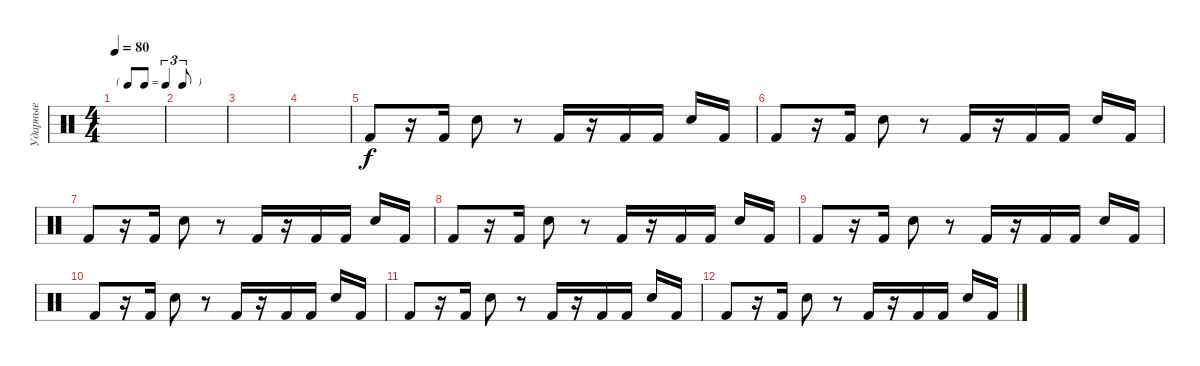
\track ("Ударные" "Ударные") {instrument percussion}
\staff {score}
\articulation defaults
\ts (4 4)
\tf triplet8th
\tempo 80
\clef neutral
\ks c
|
|
|
|
"Kick (hit) 2".8 r.16 "Kick (hit) 2".16 "Snare (hit) 2".8 r.8 "Kick (hit) 2".16 r.16 "Kick (hit) 2".16 "Kick (hit) 2".16 "Snare (hit) 2".16 "Kick (hit) 2".16 |
"Kick (hit) 2".8 r.16 "Kick (hit) 2".16 "Snare (hit) 2".8 r.8 "Kick (hit) 2".16 r.16 "Kick (hit) 2".16 "Kick (hit) 2".16 "Snare (hit) 2".16 "Kick (hit) 2".16 |
"Kick (hit) 2".8 r.16 "Kick (hit) 2".16 "Snare (hit) 2".8 r.8 "Kick (hit) 2".16 r.16 "Kick (hit) 2".16 "Kick (hit) 2".16 "Snare (hit) 2".16 "Kick (hit) 2".16 |
"Kick (hit) 2".8 r.16 "Kick (hit) 2".16 "Snare (hit) 2".8 r.8 "Kick (hit) 2".16 r.16 "Kick (hit) 2".16 "Kick (hit) 2".16 "Snare (hit) 2".16 "Kick (hit) 2".16 |
"Kick (hit) 2".8 r.16 "Kick (hit) 2".16 "Snare (hit) 2".8 r.8 "Kick (hit) 2".16 r.16 "Kick (hit) 2".16 "Kick (hit) 2".16 "Snare (hit) 2".16 "Kick (hit) 2".16 |
"Kick (hit) 2".8 r.16 "Kick (hit) 2".16 "Snare (hit) 2".8 r.8 "Kick (hit) 2".16 r.16 "Kick (hit) 2".16 "Kick (hit) 2".16 "Snare (hit) 2".16 "Kick (hit) 2".16 |
"Kick (hit) 2".8 r.16 "Kick (hit) 2".16 "Snare (hit) 2".8 r.8 "Kick (hit) 2".16 r.16 "Kick (hit) 2".16 "Kick (hit) 2".16 "Snare (hit) 2".16 "Kick (hit) 2".16 |
"Kick (hit) 2".8 r.16 "Kick (hit) 2".16 "Snare (hit) 2".8 r.8 "Kick (hit) 2".16 r.16 "Kick (hit) 2".16 "Kick (hit) 2".16 "Snare (hit) 2".16 "Kick (hit) 2".16
